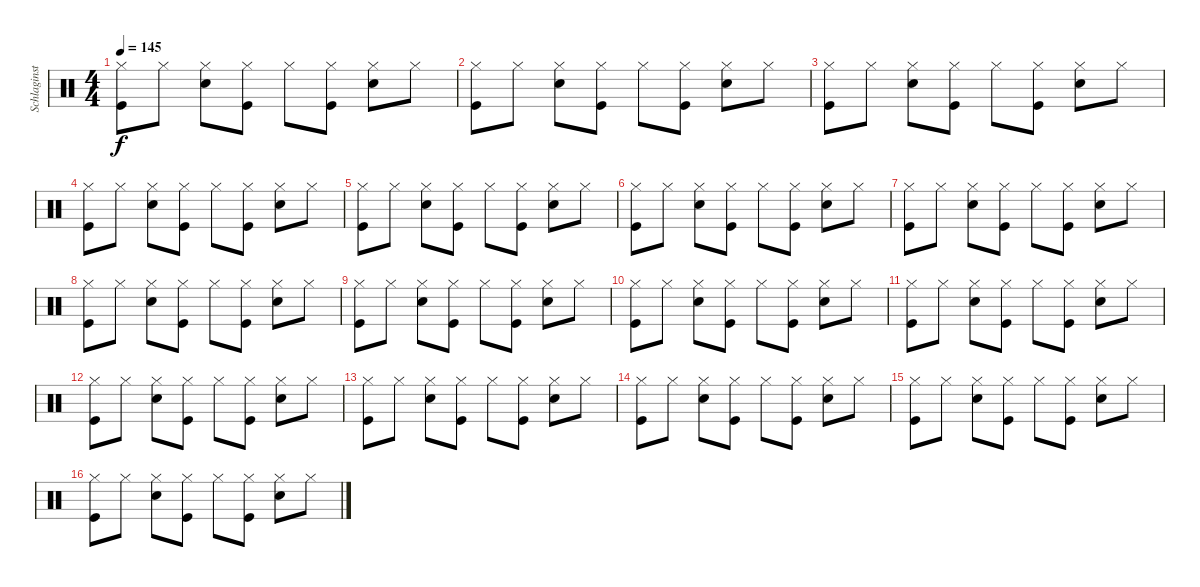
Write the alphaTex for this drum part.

\track ("Schlaginstrumente - Auswahl" "Schlaginst") {instrument percussion}
\staff {score}
\articulation defaults
\ts (4 4)
\tempo 145
\clef neutral
\ks c
("Kick (hit)" "Hi-Hat (closed)").8{dy f} "Hi-Hat (closed)".8 ("Snare (hit) 2" "Hi-Hat (closed)").8 ("Hi-Hat (closed)" "Kick (hit)").8 "Hi-Hat (closed)".8 ("Hi-Hat (closed)" "Kick (hit)").8 ("Snare (hit) 2" "Hi-Hat (closed)").8 "Hi-Hat (closed)".8 |
("Kick (hit)" "Hi-Hat (closed)").8 "Hi-Hat (closed)".8 ("Snare (hit) 2" "Hi-Hat (closed)").8 ("Hi-Hat (closed)" "Kick (hit)").8 "Hi-Hat (closed)".8 ("Hi-Hat (closed)" "Kick (hit)").8 ("Snare (hit) 2" "Hi-Hat (closed)").8 "Hi-Hat (closed)".8 |
("Kick (hit)" "Hi-Hat (closed)").8 "Hi-Hat (closed)".8 ("Snare (hit) 2" "Hi-Hat (closed)").8 ("Hi-Hat (closed)" "Kick (hit)").8 "Hi-Hat (closed)".8 ("Hi-Hat (closed)" "Kick (hit)").8 ("Snare (hit) 2" "Hi-Hat (closed)").8 "Hi-Hat (closed)".8 |
("Kick (hit)" "Hi-Hat (closed)").8 "Hi-Hat (closed)".8 ("Snare (hit) 2" "Hi-Hat (closed)").8 ("Hi-Hat (closed)" "Kick (hit)").8 "Hi-Hat (closed)".8 ("Hi-Hat (closed)" "Kick (hit)").8 ("Snare (hit) 2" "Hi-Hat (closed)").8 "Hi-Hat (closed)".8 |
("Kick (hit)" "Hi-Hat (closed)").8 "Hi-Hat (closed)".8 ("Snare (hit) 2" "Hi-Hat (closed)").8 ("Hi-Hat (closed)" "Kick (hit)").8 "Hi-Hat (closed)".8 ("Hi-Hat (closed)" "Kick (hit)").8 ("Snare (hit) 2" "Hi-Hat (closed)").8 "Hi-Hat (closed)".8 |
("Kick (hit)" "Hi-Hat (closed)").8 "Hi-Hat (closed)".8 ("Snare (hit) 2" "Hi-Hat (closed)").8 ("Hi-Hat (closed)" "Kick (hit)").8 "Hi-Hat (closed)".8 ("Hi-Hat (closed)" "Kick (hit)").8 ("Snare (hit) 2" "Hi-Hat (closed)").8 "Hi-Hat (closed)".8 |
("Kick (hit)" "Hi-Hat (closed)").8 "Hi-Hat (closed)".8 ("Snare (hit) 2" "Hi-Hat (closed)").8 ("Hi-Hat (closed)" "Kick (hit)").8 "Hi-Hat (closed)".8 ("Hi-Hat (closed)" "Kick (hit)").8 ("Snare (hit) 2" "Hi-Hat (closed)").8 "Hi-Hat (closed)".8 |
("Kick (hit)" "Hi-Hat (closed)").8 "Hi-Hat (closed)".8 ("Snare (hit) 2" "Hi-Hat (closed)").8 ("Hi-Hat (closed)" "Kick (hit)").8 "Hi-Hat (closed)".8 ("Hi-Hat (closed)" "Kick (hit)").8 ("Snare (hit) 2" "Hi-Hat (closed)").8 "Hi-Hat (closed)".8 |
("Kick (hit)" "Hi-Hat (closed)").8 "Hi-Hat (closed)".8 ("Snare (hit) 2" "Hi-Hat (closed)").8 ("Hi-Hat (closed)" "Kick (hit)").8 "Hi-Hat (closed)".8 ("Hi-Hat (closed)" "Kick (hit)").8 ("Snare (hit) 2" "Hi-Hat (closed)").8 "Hi-Hat (closed)".8 |
("Kick (hit)" "Hi-Hat (closed)").8 "Hi-Hat (closed)".8 ("Snare (hit) 2" "Hi-Hat (closed)").8 ("Hi-Hat (closed)" "Kick (hit)").8 "Hi-Hat (closed)".8 ("Hi-Hat (closed)" "Kick (hit)").8 ("Snare (hit) 2" "Hi-Hat (closed)").8 "Hi-Hat (closed)".8 |
("Kick (hit)" "Hi-Hat (closed)").8 "Hi-Hat (closed)".8 ("Snare (hit) 2" "Hi-Hat (closed)").8 ("Hi-Hat (closed)" "Kick (hit)").8 "Hi-Hat (closed)".8 ("Hi-Hat (closed)" "Kick (hit)").8 ("Snare (hit) 2" "Hi-Hat (closed)").8 "Hi-Hat (closed)".8 |
("Kick (hit)" "Hi-Hat (closed)").8 "Hi-Hat (closed)".8 ("Snare (hit) 2" "Hi-Hat (closed)").8 ("Hi-Hat (closed)" "Kick (hit)").8 "Hi-Hat (closed)".8 ("Hi-Hat (closed)" "Kick (hit)").8 ("Snare (hit) 2" "Hi-Hat (closed)").8 "Hi-Hat (closed)".8 |
("Kick (hit)" "Hi-Hat (closed)").8 "Hi-Hat (closed)".8 ("Snare (hit) 2" "Hi-Hat (closed)").8 ("Hi-Hat (closed)" "Kick (hit)").8 "Hi-Hat (closed)".8 ("Hi-Hat (closed)" "Kick (hit)").8 ("Snare (hit) 2" "Hi-Hat (closed)").8 "Hi-Hat (closed)".8 |
("Kick (hit)" "Hi-Hat (closed)").8 "Hi-Hat (closed)".8 ("Snare (hit) 2" "Hi-Hat (closed)").8 ("Hi-Hat (closed)" "Kick (hit)").8 "Hi-Hat (closed)".8 ("Hi-Hat (closed)" "Kick (hit)").8 ("Snare (hit) 2" "Hi-Hat (closed)").8 "Hi-Hat (closed)".8 |
("Kick (hit)" "Hi-Hat (closed)").8 "Hi-Hat (closed)".8 ("Snare (hit) 2" "Hi-Hat (closed)").8 ("Hi-Hat (closed)" "Kick (hit)").8 "Hi-Hat (closed)".8 ("Hi-Hat (closed)" "Kick (hit)").8 ("Snare (hit) 2" "Hi-Hat (closed)").8 "Hi-Hat (closed)".8 |
("Kick (hit)" "Hi-Hat (closed)").8 "Hi-Hat (closed)".8 ("Snare (hit) 2" "Hi-Hat (closed)").8 ("Hi-Hat (closed)" "Kick (hit)").8 "Hi-Hat (closed)".8 ("Hi-Hat (closed)" "Kick (hit)").8 ("Snare (hit) 2" "Hi-Hat (closed)").8 "Hi-Hat (closed)".8
